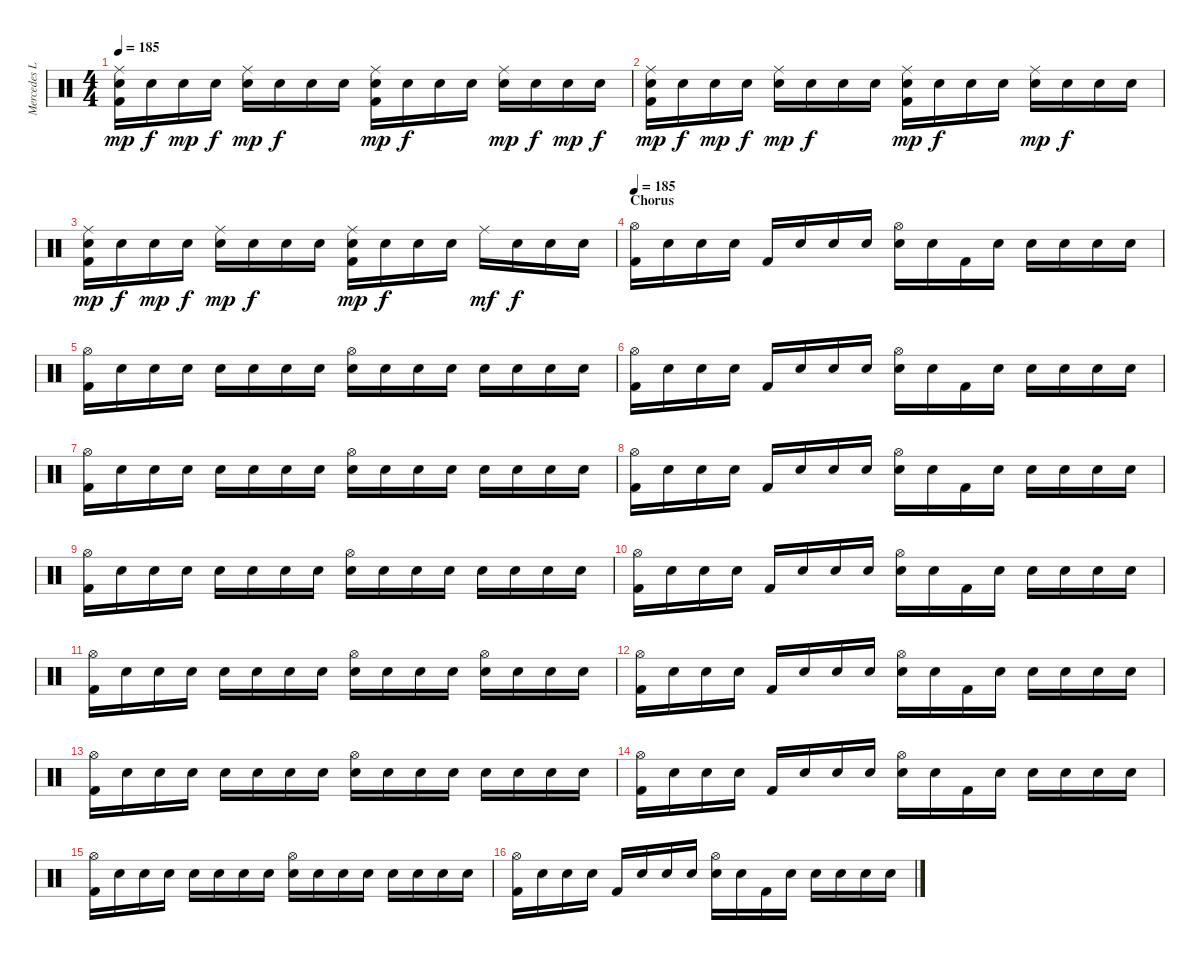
\track ("Mercedes Lander - Drums" "Mercedes L") {instrument percussion}
\staff {score}
\articulation defaults
\ts (4 4)
\tempo 185
\clef neutral
\ks c
("Ride (middle)" "Electric Snare (hit)" "Kick (hit) 2").16{dy mp} "Snare (hit)".16{dy f} "Electric Snare (hit)".16{dy mp} "Snare (hit)".16{dy f} ("Ride (middle)" "Electric Snare (hit)").16{dy mp} "Snare (hit)".16{dy f} "Snare (hit)".16 "Snare (hit)".16 ("Ride (middle)" "Electric Snare (hit)" "Kick (hit) 2").16{dy mp} "Snare (hit)".16{dy f} "Snare (hit)".16 "Snare (hit)".16 ("Ride (middle)" "Electric Snare (hit)").16{dy mp} "Snare (hit)".16{dy f} "Electric Snare (hit)".16{dy mp} "Snare (hit)".16{dy f} |
("Ride (middle)" "Electric Snare (hit)" "Kick (hit) 2").16{dy mp} "Snare (hit)".16{dy f} "Electric Snare (hit)".16{dy mp} "Snare (hit)".16{dy f} ("Ride (middle)" "Electric Snare (hit)").16{dy mp} "Snare (hit)".16{dy f} "Snare (hit)".16 "Snare (hit)".16 ("Ride (middle)" "Electric Snare (hit)" "Kick (hit) 2").16{dy mp} "Snare (hit)".16{dy f} "Snare (hit)".16 "Snare (hit)".16 ("Ride (middle)" "Electric Snare (hit)").16{dy mp} "Snare (hit)".16{dy f} "Snare (hit)".16 "Snare (hit)".16 |
("Ride (middle)" "Electric Snare (hit)" "Kick (hit) 2").16{dy mp} "Snare (hit)".16{dy f} "Electric Snare (hit)".16{dy mp} "Snare (hit)".16{dy f} ("Ride (middle)" "Electric Snare (hit)").16{dy mp} "Snare (hit)".16{dy f} "Snare (hit)".16 "Snare (hit)".16 ("Ride (middle)" "Electric Snare (hit)" "Kick (hit) 2").16{dy mp} "Snare (hit)".16{dy f} "Snare (hit)".16 "Snare (hit)".16 "Ride (middle)".16{dy mf} "Snare (hit)".16{dy f} "Snare (hit)".16 "Snare (hit)".16 |
\section ("" "Chorus")
\tempo 185
("Hi-Hat (open)" "Kick (hit) 2").16{volume 16 balance 8} "Snare (hit)".16 "Electric Snare (hit)".16 "Snare (hit)".16 "Kick (hit) 2".16 "Snare (hit)".16 "Snare (hit)".16 "Snare (hit)".16 ("Hi-Hat (open)" "Electric Snare (hit)").16 "Snare (hit)".16 "Kick (hit) 2".16 "Snare (hit)".16 "Snare (hit)".16 "Snare (hit)".16 "Snare (hit)".16 "Snare (hit)".16 |
("Hi-Hat (open)" "Kick (hit) 2").16 "Snare (hit)".16 "Snare (hit)".16 "Snare (hit)".16 "Snare (hit)".16 "Snare (hit)".16 "Snare (hit)".16 "Snare (hit)".16 ("Hi-Hat (open)" "Electric Snare (hit)").16 "Snare (hit)".16 "Snare (hit)".16 "Snare (hit)".16 "Snare (hit)".16 "Snare (hit)".16 "Snare (hit)".16 "Snare (hit)".16 |
("Hi-Hat (open)" "Kick (hit) 2").16 "Snare (hit)".16 "Electric Snare (hit)".16 "Snare (hit)".16 "Kick (hit) 2".16 "Snare (hit)".16 "Snare (hit)".16 "Snare (hit)".16 ("Hi-Hat (open)" "Electric Snare (hit)").16 "Snare (hit)".16 "Kick (hit) 2".16 "Snare (hit)".16 "Snare (hit)".16 "Snare (hit)".16 "Snare (hit)".16 "Snare (hit)".16 |
("Hi-Hat (open)" "Kick (hit) 2").16 "Snare (hit)".16 "Snare (hit)".16 "Snare (hit)".16 "Snare (hit)".16 "Snare (hit)".16 "Snare (hit)".16 "Snare (hit)".16 ("Hi-Hat (open)" "Electric Snare (hit)").16 "Snare (hit)".16 "Snare (hit)".16 "Snare (hit)".16 "Snare (hit)".16 "Snare (hit)".16 "Snare (hit)".16 "Snare (hit)".16 |
("Hi-Hat (open)" "Kick (hit) 2").16 "Snare (hit)".16 "Electric Snare (hit)".16 "Snare (hit)".16 "Kick (hit) 2".16 "Snare (hit)".16 "Snare (hit)".16 "Snare (hit)".16 ("Hi-Hat (open)" "Electric Snare (hit)").16 "Snare (hit)".16 "Kick (hit) 2".16 "Snare (hit)".16 "Snare (hit)".16 "Snare (hit)".16 "Snare (hit)".16 "Snare (hit)".16 |
("Hi-Hat (open)" "Kick (hit) 2").16 "Snare (hit)".16 "Snare (hit)".16 "Snare (hit)".16 "Snare (hit)".16 "Snare (hit)".16 "Snare (hit)".16 "Snare (hit)".16 ("Hi-Hat (open)" "Electric Snare (hit)").16 "Snare (hit)".16 "Snare (hit)".16 "Snare (hit)".16 "Snare (hit)".16 "Snare (hit)".16 "Snare (hit)".16 "Snare (hit)".16 |
("Hi-Hat (open)" "Kick (hit) 2").16 "Snare (hit)".16 "Electric Snare (hit)".16 "Snare (hit)".16 "Kick (hit) 2".16 "Snare (hit)".16 "Snare (hit)".16 "Snare (hit)".16 ("Hi-Hat (open)" "Electric Snare (hit)").16 "Snare (hit)".16 "Kick (hit) 2".16 "Snare (hit)".16 "Snare (hit)".16 "Snare (hit)".16 "Snare (hit)".16 "Snare (hit)".16 |
("Hi-Hat (open)" "Kick (hit) 2").16 "Snare (hit)".16 "Snare (hit)".16 "Snare (hit)".16 "Snare (hit)".16 "Snare (hit)".16 "Snare (hit)".16 "Snare (hit)".16 ("Hi-Hat (open)" "Electric Snare (hit)").16 "Snare (hit)".16 "Snare (hit)".16 "Snare (hit)".16 ("Hi-Hat (open)" "Electric Snare (hit)").16 "Snare (hit)".16 "Snare (hit)".16 "Snare (hit)".16 |
("Hi-Hat (open)" "Kick (hit) 2").16 "Snare (hit)".16 "Electric Snare (hit)".16 "Snare (hit)".16 "Kick (hit) 2".16 "Snare (hit)".16 "Snare (hit)".16 "Snare (hit)".16 ("Hi-Hat (open)" "Electric Snare (hit)").16 "Snare (hit)".16 "Kick (hit) 2".16 "Snare (hit)".16 "Snare (hit)".16 "Snare (hit)".16 "Snare (hit)".16 "Snare (hit)".16 |
("Hi-Hat (open)" "Kick (hit) 2").16 "Snare (hit)".16 "Snare (hit)".16 "Snare (hit)".16 "Snare (hit)".16 "Snare (hit)".16 "Snare (hit)".16 "Snare (hit)".16 ("Hi-Hat (open)" "Electric Snare (hit)").16 "Snare (hit)".16 "Snare (hit)".16 "Snare (hit)".16 "Snare (hit)".16 "Snare (hit)".16 "Snare (hit)".16 "Snare (hit)".16 |
("Hi-Hat (open)" "Kick (hit) 2").16 "Snare (hit)".16 "Electric Snare (hit)".16 "Snare (hit)".16 "Kick (hit) 2".16 "Snare (hit)".16 "Snare (hit)".16 "Snare (hit)".16 ("Hi-Hat (open)" "Electric Snare (hit)").16 "Snare (hit)".16 "Kick (hit) 2".16 "Snare (hit)".16 "Snare (hit)".16 "Snare (hit)".16 "Snare (hit)".16 "Snare (hit)".16 |
("Hi-Hat (open)" "Kick (hit) 2").16 "Snare (hit)".16 "Snare (hit)".16 "Snare (hit)".16 "Snare (hit)".16 "Snare (hit)".16 "Snare (hit)".16 "Snare (hit)".16 ("Hi-Hat (open)" "Electric Snare (hit)").16 "Snare (hit)".16 "Snare (hit)".16 "Snare (hit)".16 "Snare (hit)".16 "Snare (hit)".16 "Snare (hit)".16 "Snare (hit)".16 |
("Hi-Hat (open)" "Kick (hit) 2").16 "Snare (hit)".16 "Electric Snare (hit)".16 "Snare (hit)".16 "Kick (hit) 2".16 "Snare (hit)".16 "Snare (hit)".16 "Snare (hit)".16 ("Hi-Hat (open)" "Electric Snare (hit)").16 "Snare (hit)".16 "Kick (hit) 2".16 "Snare (hit)".16 "Snare (hit)".16 "Snare (hit)".16 "Snare (hit)".16 "Snare (hit)".16
